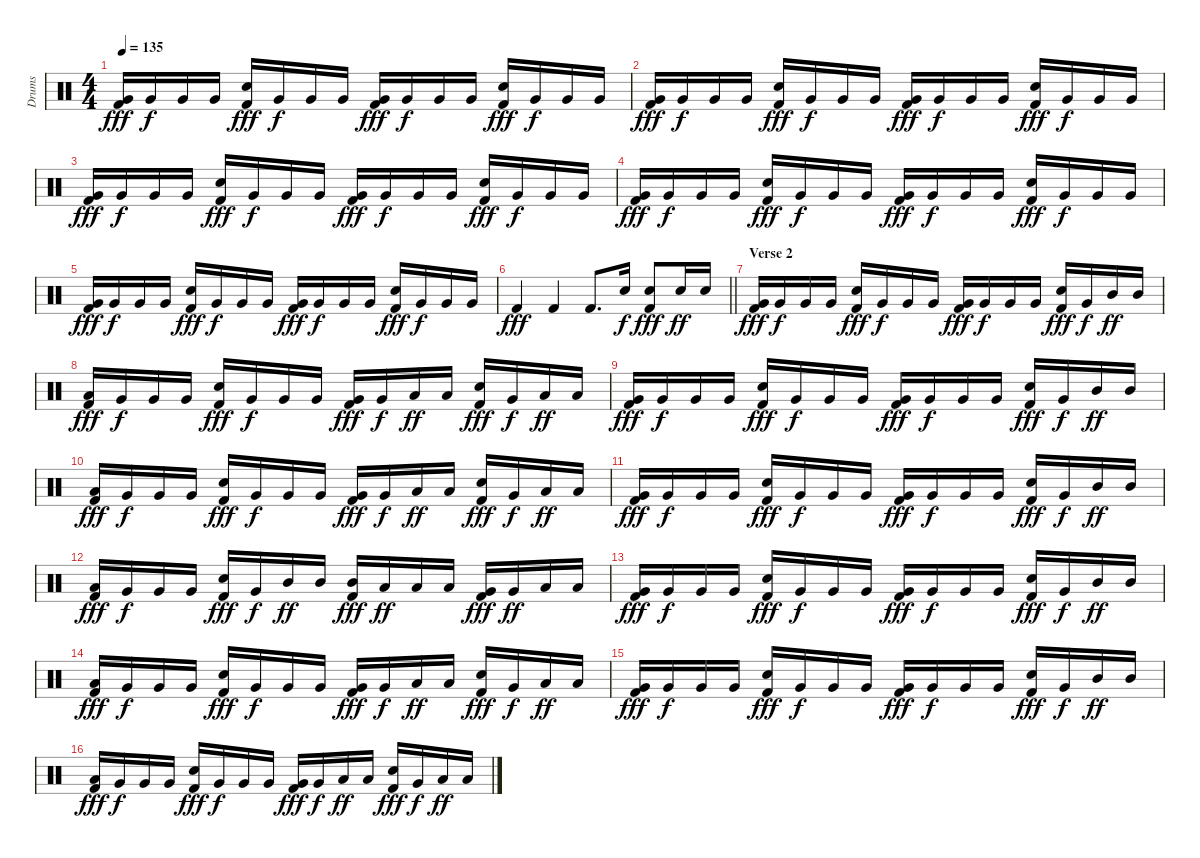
\track ("Drums" "Drums") {instrument percussion}
\staff {score}
\articulation defaults
\ts (4 4)
\tempo 135
\clef neutral
\ks c
("Very Low Tom (hit)" "Kick (hit) 2").16{dy fff} "Very Low Tom (hit)".16{dy f} "Very Low Tom (hit)".16 "Very Low Tom (hit)".16 ("Snare (hit) 2" "Kick (hit) 2").16{dy fff} "Very Low Tom (hit)".16{dy f} "Very Low Tom (hit)".16 "Very Low Tom (hit)".16 ("Very Low Tom (hit)" "Kick (hit) 2").16{dy fff} "Very Low Tom (hit)".16{dy f} "Very Low Tom (hit)".16 "Very Low Tom (hit)".16 ("Snare (hit) 2" "Kick (hit) 2").16{dy fff} "Very Low Tom (hit)".16{dy f} "Very Low Tom (hit)".16 "Very Low Tom (hit)".16 |
("Very Low Tom (hit)" "Kick (hit) 2").16{dy fff} "Very Low Tom (hit)".16{dy f} "Very Low Tom (hit)".16 "Very Low Tom (hit)".16 ("Snare (hit) 2" "Kick (hit) 2").16{dy fff} "Very Low Tom (hit)".16{dy f} "Very Low Tom (hit)".16 "Very Low Tom (hit)".16 ("Very Low Tom (hit)" "Kick (hit) 2").16{dy fff} "Very Low Tom (hit)".16{dy f} "Very Low Tom (hit)".16 "Very Low Tom (hit)".16 ("Snare (hit) 2" "Kick (hit) 2").16{dy fff} "Very Low Tom (hit)".16{dy f} "Very Low Tom (hit)".16 "Very Low Tom (hit)".16 |
("Very Low Tom (hit)" "Kick (hit) 2").16{dy fff} "Very Low Tom (hit)".16{dy f} "Very Low Tom (hit)".16 "Very Low Tom (hit)".16 ("Snare (hit) 2" "Kick (hit) 2").16{dy fff} "Very Low Tom (hit)".16{dy f} "Very Low Tom (hit)".16 "Very Low Tom (hit)".16 ("Very Low Tom (hit)" "Kick (hit) 2").16{dy fff} "Very Low Tom (hit)".16{dy f} "Very Low Tom (hit)".16 "Very Low Tom (hit)".16 ("Snare (hit) 2" "Kick (hit) 2").16{dy fff} "Very Low Tom (hit)".16{dy f} "Very Low Tom (hit)".16 "Very Low Tom (hit)".16 |
("Very Low Tom (hit)" "Kick (hit) 2").16{dy fff} "Very Low Tom (hit)".16{dy f} "Very Low Tom (hit)".16 "Very Low Tom (hit)".16 ("Snare (hit) 2" "Kick (hit) 2").16{dy fff} "Very Low Tom (hit)".16{dy f} "Very Low Tom (hit)".16 "Very Low Tom (hit)".16 ("Very Low Tom (hit)" "Kick (hit) 2").16{dy fff} "Very Low Tom (hit)".16{dy f} "Very Low Tom (hit)".16 "Very Low Tom (hit)".16 ("Snare (hit) 2" "Kick (hit) 2").16{dy fff} "Very Low Tom (hit)".16{dy f} "Very Low Tom (hit)".16 "Very Low Tom (hit)".16 |
("Very Low Tom (hit)" "Kick (hit) 2").16{dy fff} "Very Low Tom (hit)".16{dy f} "Very Low Tom (hit)".16 "Very Low Tom (hit)".16 ("Snare (hit) 2" "Kick (hit) 2").16{dy fff} "Very Low Tom (hit)".16{dy f} "Very Low Tom (hit)".16 "Very Low Tom (hit)".16 ("Very Low Tom (hit)" "Kick (hit) 2").16{dy fff} "Very Low Tom (hit)".16{dy f} "Very Low Tom (hit)".16 "Very Low Tom (hit)".16 ("Snare (hit) 2" "Kick (hit) 2").16{dy fff} "Very Low Tom (hit)".16{dy f} "Very Low Tom (hit)".16 "Very Low Tom (hit)".16 |
\barLineRight lightlight "Kick (hit) 2".4{dy fff} "Kick (hit) 2".4 "Kick (hit) 2".8{d} "Snare (hit) 2".16{dy f}
("Snare (hit) 2" "Kick (hit) 2").8{dy fff} "Snare (hit) 2".16{dy ff} "Snare (hit) 2".16 |
\section ("" "Verse 2")
("Very Low Tom (hit)" "Kick (hit) 2").16{dy fff} "Very Low Tom (hit)".16{dy f} "Very Low Tom (hit)".16 "Very Low Tom (hit)".16 ("Snare (hit) 2" "Kick (hit) 2").16{dy fff} "Very Low Tom (hit)".16{dy f} "Very Low Tom (hit)".16 "Very Low Tom (hit)".16 ("Very Low Tom (hit)" "Kick (hit) 2").16{dy fff} "Very Low Tom (hit)".16{dy f} "Very Low Tom (hit)".16 "Very Low Tom (hit)".16 ("Snare (hit) 2" "Kick (hit) 2").16{dy fff} "Very Low Tom (hit)".16{dy f} "Mid Tom (hit)".16{dy ff} "Mid Tom (hit)".16 |
("Low Tom (hit)" "Kick (hit) 2").16{dy fff} "Very Low Tom (hit)".16{dy f} "Very Low Tom (hit)".16 "Very Low Tom (hit)".16 ("Snare (hit) 2" "Kick (hit) 2").16{dy fff} "Very Low Tom (hit)".16{dy f} "Very Low Tom (hit)".16 "Very Low Tom (hit)".16 ("Very Low Tom (hit)" "Kick (hit) 2").16{dy fff} "Very Low Tom (hit)".16{dy f} "Low Tom (hit)".16{dy ff} "Low Tom (hit)".16 ("Snare (hit) 2" "Kick (hit) 2").16{dy fff} "Very Low Tom (hit)".16{dy f} "Low Tom (hit)".16{dy ff} "Low Tom (hit)".16 |
("Very Low Tom (hit)" "Kick (hit) 2").16{dy fff} "Very Low Tom (hit)".16{dy f} "Very Low Tom (hit)".16 "Very Low Tom (hit)".16 ("Snare (hit) 2" "Kick (hit) 2").16{dy fff} "Very Low Tom (hit)".16{dy f} "Very Low Tom (hit)".16 "Very Low Tom (hit)".16 ("Very Low Tom (hit)" "Kick (hit) 2").16{dy fff} "Very Low Tom (hit)".16{dy f} "Very Low Tom (hit)".16 "Very Low Tom (hit)".16 ("Snare (hit) 2" "Kick (hit) 2").16{dy fff} "Very Low Tom (hit)".16{dy f} "Mid Tom (hit)".16{dy ff} "Mid Tom (hit)".16 |
("Low Tom (hit)" "Kick (hit) 2").16{dy fff} "Very Low Tom (hit)".16{dy f} "Very Low Tom (hit)".16 "Very Low Tom (hit)".16 ("Snare (hit) 2" "Kick (hit) 2").16{dy fff} "Very Low Tom (hit)".16{dy f} "Very Low Tom (hit)".16 "Very Low Tom (hit)".16 ("Very Low Tom (hit)" "Kick (hit) 2").16{dy fff} "Very Low Tom (hit)".16{dy f} "Low Tom (hit)".16{dy ff} "Low Tom (hit)".16 ("Snare (hit) 2" "Kick (hit) 2").16{dy fff} "Very Low Tom (hit)".16{dy f} "Low Tom (hit)".16{dy ff} "Low Tom (hit)".16 |
("Very Low Tom (hit)" "Kick (hit) 2").16{dy fff} "Very Low Tom (hit)".16{dy f} "Very Low Tom (hit)".16 "Very Low Tom (hit)".16 ("Snare (hit) 2" "Kick (hit) 2").16{dy fff} "Very Low Tom (hit)".16{dy f} "Very Low Tom (hit)".16 "Very Low Tom (hit)".16 ("Very Low Tom (hit)" "Kick (hit) 2").16{dy fff} "Very Low Tom (hit)".16{dy f} "Very Low Tom (hit)".16 "Very Low Tom (hit)".16 ("Snare (hit) 2" "Kick (hit) 2").16{dy fff} "Very Low Tom (hit)".16{dy f} "Mid Tom (hit)".16{dy ff} "Mid Tom (hit)".16 |
("Low Tom (hit)" "Kick (hit) 2").16{dy fff} "Very Low Tom (hit)".16{dy f} "Very Low Tom (hit)".16 "Very Low Tom (hit)".16 ("Snare (hit) 2" "Kick (hit) 2").16{dy fff} "Very Low Tom (hit)".16{dy f} "Mid Tom (hit)".16{dy ff} "Mid Tom (hit)".16 ("Mid Tom (hit)" "Kick (hit) 2").16{dy fff} "Low Tom (hit)".16{dy ff} "Low Tom (hit)".16 "Low Tom (hit)".16 ("Very Low Tom (hit)" "Kick (hit) 2").16{dy fff} "Very Low Tom (hit)".16{dy ff} "Low Floor Tom (hit)".16 "Low Floor Tom (hit)".16 |
("Very Low Tom (hit)" "Kick (hit) 2").16{dy fff} "Very Low Tom (hit)".16{dy f} "Very Low Tom (hit)".16 "Very Low Tom (hit)".16 ("Snare (hit) 2" "Kick (hit) 2").16{dy fff} "Very Low Tom (hit)".16{dy f} "Very Low Tom (hit)".16 "Very Low Tom (hit)".16 ("Very Low Tom (hit)" "Kick (hit) 2").16{dy fff} "Very Low Tom (hit)".16{dy f} "Very Low Tom (hit)".16 "Very Low Tom (hit)".16 ("Snare (hit) 2" "Kick (hit) 2").16{dy fff} "Very Low Tom (hit)".16{dy f} "Mid Tom (hit)".16{dy ff} "Mid Tom (hit)".16 |
("Low Tom (hit)" "Kick (hit) 2").16{dy fff} "Very Low Tom (hit)".16{dy f} "Very Low Tom (hit)".16 "Very Low Tom (hit)".16 ("Snare (hit) 2" "Kick (hit) 2").16{dy fff} "Very Low Tom (hit)".16{dy f} "Very Low Tom (hit)".16 "Very Low Tom (hit)".16 ("Very Low Tom (hit)" "Kick (hit) 2").16{dy fff} "Very Low Tom (hit)".16{dy f} "Low Tom (hit)".16{dy ff} "Low Tom (hit)".16 ("Snare (hit) 2" "Kick (hit) 2").16{dy fff} "Very Low Tom (hit)".16{dy f} "Low Tom (hit)".16{dy ff} "Low Tom (hit)".16 |
("Very Low Tom (hit)" "Kick (hit) 2").16{dy fff} "Very Low Tom (hit)".16{dy f} "Very Low Tom (hit)".16 "Very Low Tom (hit)".16 ("Snare (hit) 2" "Kick (hit) 2").16{dy fff} "Very Low Tom (hit)".16{dy f} "Very Low Tom (hit)".16 "Very Low Tom (hit)".16 ("Very Low Tom (hit)" "Kick (hit) 2").16{dy fff} "Very Low Tom (hit)".16{dy f} "Very Low Tom (hit)".16 "Very Low Tom (hit)".16 ("Snare (hit) 2" "Kick (hit) 2").16{dy fff} "Very Low Tom (hit)".16{dy f} "Mid Tom (hit)".16{dy ff} "Mid Tom (hit)".16 |
("Low Tom (hit)" "Kick (hit) 2").16{dy fff} "Very Low Tom (hit)".16{dy f} "Very Low Tom (hit)".16 "Very Low Tom (hit)".16 ("Snare (hit) 2" "Kick (hit) 2").16{dy fff} "Very Low Tom (hit)".16{dy f} "Very Low Tom (hit)".16 "Very Low Tom (hit)".16 ("Very Low Tom (hit)" "Kick (hit) 2").16{dy fff} "Very Low Tom (hit)".16{dy f} "Low Tom (hit)".16{dy ff} "Low Tom (hit)".16 ("Snare (hit) 2" "Kick (hit) 2").16{dy fff} "Very Low Tom (hit)".16{dy f} "Low Tom (hit)".16{dy ff} "Low Tom (hit)".16
